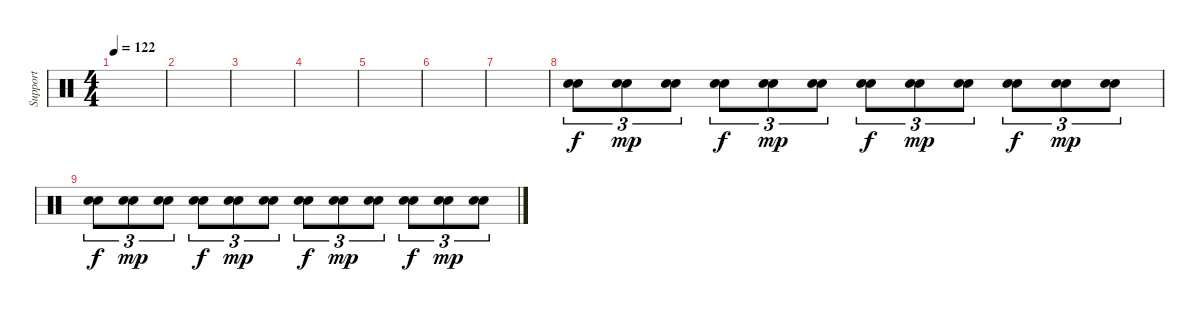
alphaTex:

\track ("Support" "Support") {instrument percussion}
\staff {score}
\articulation defaults
\ts (4 4)
\tempo 122
\clef neutral
\ks c
|
|
|
|
|
|
|
("Snare (hit) 2" "Electric Snare (hit)").8{tu (3 2) dy f volume 16} ("Snare (hit) 2" "Electric Snare (hit)").8{tu (3 2) dy mp} ("Snare (hit) 2" "Electric Snare (hit)").8{tu (3 2)} ("Snare (hit) 2" "Electric Snare (hit)").8{tu (3 2) dy f} ("Snare (hit) 2" "Electric Snare (hit)").8{tu (3 2) dy mp} ("Snare (hit) 2" "Electric Snare (hit)").8{tu (3 2)} ("Snare (hit) 2" "Electric Snare (hit)").8{tu (3 2) dy f} ("Snare (hit) 2" "Electric Snare (hit)").8{tu (3 2) dy mp} ("Snare (hit) 2" "Electric Snare (hit)").8{tu (3 2)} ("Snare (hit) 2" "Electric Snare (hit)").8{tu (3 2) dy f} ("Snare (hit) 2" "Electric Snare (hit)").8{tu (3 2) dy mp} ("Snare (hit) 2" "Electric Snare (hit)").8{tu (3 2)} |
("Snare (hit) 2" "Electric Snare (hit)").8{tu (3 2) dy f} ("Snare (hit) 2" "Electric Snare (hit)").8{tu (3 2) dy mp} ("Snare (hit) 2" "Electric Snare (hit)").8{tu (3 2)} ("Snare (hit) 2" "Electric Snare (hit)").8{tu (3 2) dy f} ("Snare (hit) 2" "Electric Snare (hit)").8{tu (3 2) dy mp} ("Snare (hit) 2" "Electric Snare (hit)").8{tu (3 2)} ("Snare (hit) 2" "Electric Snare (hit)").8{tu (3 2) dy f} ("Snare (hit) 2" "Electric Snare (hit)").8{tu (3 2) dy mp} ("Snare (hit) 2" "Electric Snare (hit)").8{tu (3 2)} ("Snare (hit) 2" "Electric Snare (hit)").8{tu (3 2) dy f} ("Snare (hit) 2" "Electric Snare (hit)").8{tu (3 2) dy mp} ("Snare (hit) 2" "Electric Snare (hit)").8{tu (3 2)}
